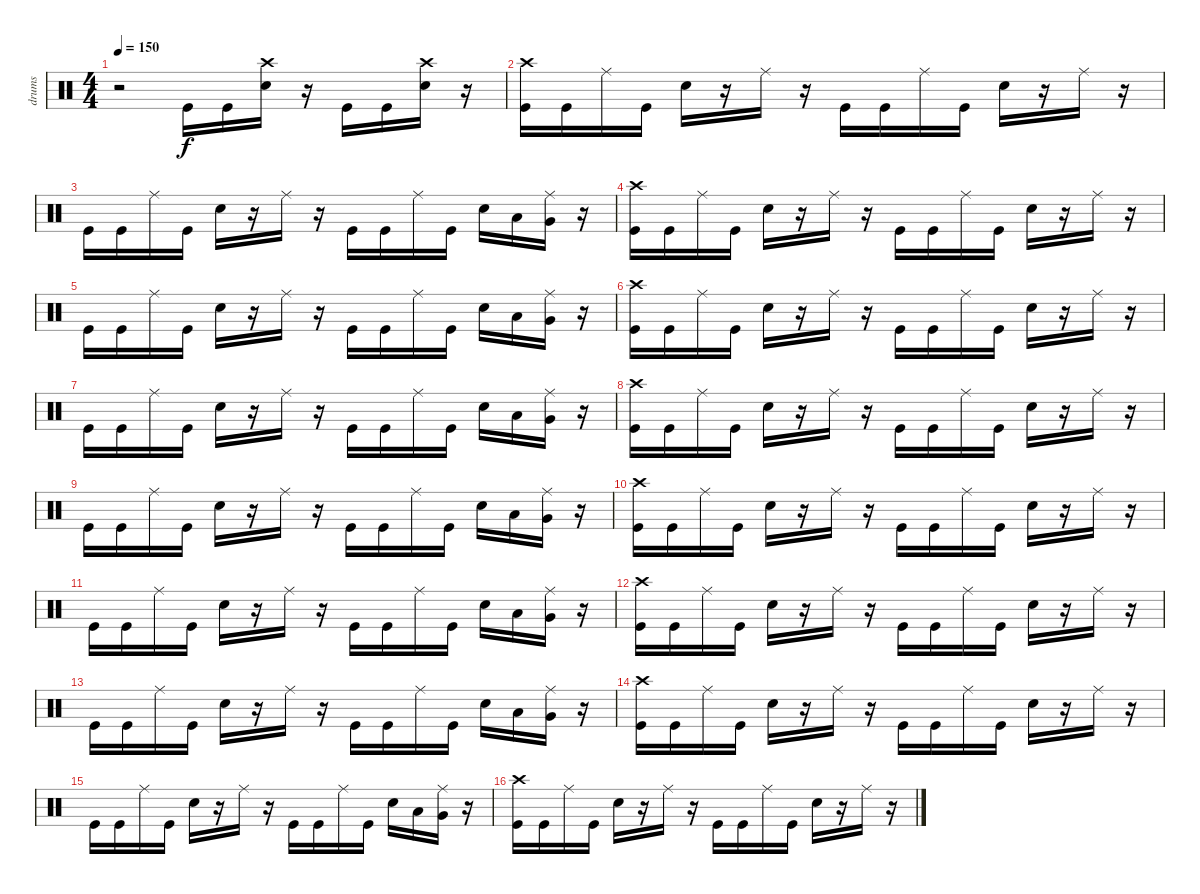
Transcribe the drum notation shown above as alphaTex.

\track ("drums" "drums") {instrument percussion}
\staff {score}
\articulation defaults
\ts (4 4)
\tempo 150
\clef neutral
\ks c
r.2{dy f} "Kick (hit)".16 "Kick (hit)".16 ("Crash high (hit)" "Electric Snare (hit)").16 r.16 "Kick (hit)".16 "Kick (hit)".16 ("Crash high (hit)" "Electric Snare (hit)").16 r.16 |
("Crash high (hit)" "Kick (hit)").16 "Kick (hit)".16 "Ride (middle)".16 "Kick (hit)".16 "Electric Snare (hit)".16 r.16 "Ride (middle)".16 r.16 "Kick (hit)".16 "Kick (hit)".16 "Ride (middle)".16 "Kick (hit)".16 "Electric Snare (hit)".16 r.16 "Ride (middle)".16 r.16 |
"Kick (hit)".16 "Kick (hit)".16 "Ride (middle)".16 "Kick (hit)".16 "Electric Snare (hit)".16 r.16 "Ride (middle)".16 r.16 "Kick (hit)".16 "Kick (hit)".16 "Ride (middle)".16 "Kick (hit)".16 "Electric Snare (hit)".16 "Low Tom (hit)".16 ("Very Low Tom (hit)" "Ride (middle)").16 r.16 |
("Crash high (hit)" "Kick (hit)").16 "Kick (hit)".16 "Ride (middle)".16 "Kick (hit)".16 "Electric Snare (hit)".16 r.16 "Ride (middle)".16 r.16 "Kick (hit)".16 "Kick (hit)".16 "Ride (middle)".16 "Kick (hit)".16 "Electric Snare (hit)".16 r.16 "Ride (middle)".16 r.16 |
"Kick (hit)".16 "Kick (hit)".16 "Ride (middle)".16 "Kick (hit)".16 "Electric Snare (hit)".16 r.16 "Ride (middle)".16 r.16 "Kick (hit)".16 "Kick (hit)".16 "Ride (middle)".16 "Kick (hit)".16 "Electric Snare (hit)".16 "Low Tom (hit)".16 ("Very Low Tom (hit)" "Ride (middle)").16 r.16 |
("Crash high (hit)" "Kick (hit)").16 "Kick (hit)".16 "Ride (middle)".16 "Kick (hit)".16 "Electric Snare (hit)".16 r.16 "Ride (middle)".16 r.16 "Kick (hit)".16 "Kick (hit)".16 "Ride (middle)".16 "Kick (hit)".16 "Electric Snare (hit)".16 r.16 "Ride (middle)".16 r.16 |
"Kick (hit)".16 "Kick (hit)".16 "Ride (middle)".16 "Kick (hit)".16 "Electric Snare (hit)".16 r.16 "Ride (middle)".16 r.16 "Kick (hit)".16 "Kick (hit)".16 "Ride (middle)".16 "Kick (hit)".16 "Electric Snare (hit)".16 "Low Tom (hit)".16 ("Very Low Tom (hit)" "Ride (middle)").16 r.16 |
("Crash high (hit)" "Kick (hit)").16 "Kick (hit)".16 "Ride (middle)".16 "Kick (hit)".16 "Electric Snare (hit)".16 r.16 "Ride (middle)".16 r.16 "Kick (hit)".16 "Kick (hit)".16 "Ride (middle)".16 "Kick (hit)".16 "Electric Snare (hit)".16 r.16 "Ride (middle)".16 r.16 |
"Kick (hit)".16 "Kick (hit)".16 "Ride (middle)".16 "Kick (hit)".16 "Electric Snare (hit)".16 r.16 "Ride (middle)".16 r.16 "Kick (hit)".16 "Kick (hit)".16 "Ride (middle)".16 "Kick (hit)".16 "Electric Snare (hit)".16 "Low Tom (hit)".16 ("Very Low Tom (hit)" "Ride (middle)").16 r.16 |
("Crash high (hit)" "Kick (hit)").16 "Kick (hit)".16 "Ride (middle)".16 "Kick (hit)".16 "Electric Snare (hit)".16 r.16 "Ride (middle)".16 r.16 "Kick (hit)".16 "Kick (hit)".16 "Ride (middle)".16 "Kick (hit)".16 "Electric Snare (hit)".16 r.16 "Ride (middle)".16 r.16 |
"Kick (hit)".16 "Kick (hit)".16 "Ride (middle)".16 "Kick (hit)".16 "Electric Snare (hit)".16 r.16 "Ride (middle)".16 r.16 "Kick (hit)".16 "Kick (hit)".16 "Ride (middle)".16 "Kick (hit)".16 "Electric Snare (hit)".16 "Low Tom (hit)".16 ("Very Low Tom (hit)" "Ride (middle)").16 r.16 |
("Crash high (hit)" "Kick (hit)").16 "Kick (hit)".16 "Ride (middle)".16 "Kick (hit)".16 "Electric Snare (hit)".16 r.16 "Ride (middle)".16 r.16 "Kick (hit)".16 "Kick (hit)".16 "Ride (middle)".16 "Kick (hit)".16 "Electric Snare (hit)".16 r.16 "Ride (middle)".16 r.16 |
"Kick (hit)".16 "Kick (hit)".16 "Ride (middle)".16 "Kick (hit)".16 "Electric Snare (hit)".16 r.16 "Ride (middle)".16 r.16 "Kick (hit)".16 "Kick (hit)".16 "Ride (middle)".16 "Kick (hit)".16 "Electric Snare (hit)".16 "Low Tom (hit)".16 ("Very Low Tom (hit)" "Ride (middle)").16 r.16 |
("Crash high (hit)" "Kick (hit)").16 "Kick (hit)".16 "Ride (middle)".16 "Kick (hit)".16 "Electric Snare (hit)".16 r.16 "Ride (middle)".16 r.16 "Kick (hit)".16 "Kick (hit)".16 "Ride (middle)".16 "Kick (hit)".16 "Electric Snare (hit)".16 r.16 "Ride (middle)".16 r.16 |
"Kick (hit)".16 "Kick (hit)".16 "Ride (middle)".16 "Kick (hit)".16 "Electric Snare (hit)".16 r.16 "Ride (middle)".16 r.16 "Kick (hit)".16 "Kick (hit)".16 "Ride (middle)".16 "Kick (hit)".16 "Electric Snare (hit)".16 "Low Tom (hit)".16 ("Very Low Tom (hit)" "Ride (middle)").16 r.16 |
("Crash high (hit)" "Kick (hit)").16 "Kick (hit)".16 "Ride (middle)".16 "Kick (hit)".16 "Electric Snare (hit)".16 r.16 "Ride (middle)".16 r.16 "Kick (hit)".16 "Kick (hit)".16 "Ride (middle)".16 "Kick (hit)".16 "Electric Snare (hit)".16 r.16 "Ride (middle)".16 r.16
